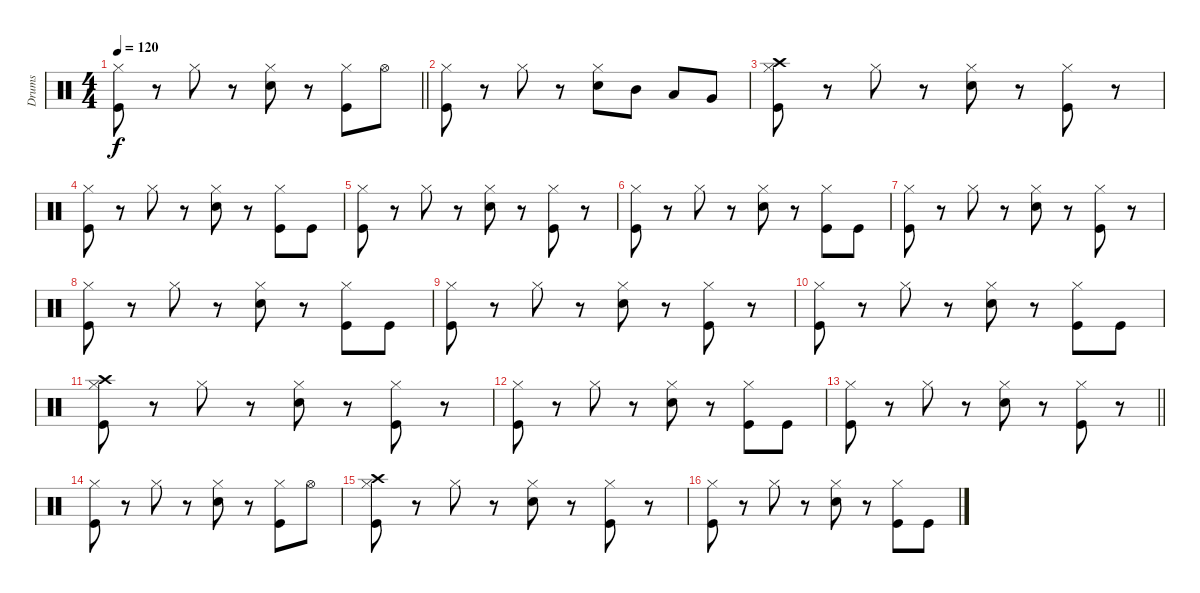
\track ("Drums" "Drums") {instrument percussion}
\staff {score}
\articulation defaults
\ts (4 4)
\tempo 120
\clef neutral
\barLineRight lightlight
\ks c
("Hi-Hat (closed)" "Kick (hit)").8{dy f} r.8 "Hi-Hat (closed)".8 r.8 ("Hi-Hat (closed)" "Snare (hit) 2").8 r.8 ("Hi-Hat (closed)" "Kick (hit)").8 "Hi-Hat (open)".8 |
("Hi-Hat (closed)" "Kick (hit)").8 r.8 "Hi-Hat (closed)".8 r.8 ("Hi-Hat (closed)" "Snare (hit) 2").8 "Mid Tom (hit)".8 "Low Tom (hit)".8 "Very Low Tom (hit)".8 |
("Crash high (hit)" "Hi-Hat (closed)" "Kick (hit)").8 r.8 "Hi-Hat (closed)".8 r.8 ("Hi-Hat (closed)" "Snare (hit) 2").8 r.8 ("Hi-Hat (closed)" "Kick (hit)").8 r.8 |
("Hi-Hat (closed)" "Kick (hit)").8 r.8 "Hi-Hat (closed)".8 r.8 ("Hi-Hat (closed)" "Snare (hit) 2").8 r.8 ("Hi-Hat (closed)" "Kick (hit)").8 "Kick (hit)".8 |
("Hi-Hat (closed)" "Kick (hit)").8 r.8 "Hi-Hat (closed)".8 r.8 ("Hi-Hat (closed)" "Snare (hit) 2").8 r.8 ("Hi-Hat (closed)" "Kick (hit)").8 r.8 |
("Hi-Hat (closed)" "Kick (hit)").8 r.8 "Hi-Hat (closed)".8 r.8 ("Hi-Hat (closed)" "Snare (hit) 2").8 r.8 ("Hi-Hat (closed)" "Kick (hit)").8 "Kick (hit)".8 |
("Hi-Hat (closed)" "Kick (hit)").8 r.8 "Hi-Hat (closed)".8 r.8 ("Hi-Hat (closed)" "Snare (hit) 2").8 r.8 ("Hi-Hat (closed)" "Kick (hit)").8 r.8 |
("Hi-Hat (closed)" "Kick (hit)").8 r.8 "Hi-Hat (closed)".8 r.8 ("Hi-Hat (closed)" "Snare (hit) 2").8 r.8 ("Hi-Hat (closed)" "Kick (hit)").8 "Kick (hit)".8 |
("Hi-Hat (closed)" "Kick (hit)").8 r.8 "Hi-Hat (closed)".8 r.8 ("Hi-Hat (closed)" "Snare (hit) 2").8 r.8 ("Hi-Hat (closed)" "Kick (hit)").8 r.8 |
("Hi-Hat (closed)" "Kick (hit)").8 r.8 "Hi-Hat (closed)".8 r.8 ("Hi-Hat (closed)" "Snare (hit) 2").8 r.8 ("Hi-Hat (closed)" "Kick (hit)").8 "Kick (hit)".8 |
("Crash high (hit)" "Hi-Hat (closed)" "Kick (hit)").8 r.8 "Hi-Hat (closed)".8 r.8 ("Hi-Hat (closed)" "Snare (hit) 2").8 r.8 ("Hi-Hat (closed)" "Kick (hit)").8 r.8 |
("Hi-Hat (closed)" "Kick (hit)").8 r.8 "Hi-Hat (closed)".8 r.8 ("Hi-Hat (closed)" "Snare (hit) 2").8 r.8 ("Hi-Hat (closed)" "Kick (hit)").8 "Kick (hit)".8 |
\barLineRight lightlight
("Hi-Hat (closed)" "Kick (hit)").8 r.8 "Hi-Hat (closed)".8 r.8 ("Hi-Hat (closed)" "Snare (hit) 2").8 r.8 ("Hi-Hat (closed)" "Kick (hit)").8 r.8 |
("Hi-Hat (closed)" "Kick (hit)").8 r.8 "Hi-Hat (closed)".8 r.8 ("Hi-Hat (closed)" "Snare (hit) 2").8 r.8 ("Hi-Hat (closed)" "Kick (hit)").8 "Hi-Hat (open)".8 |
("Crash high (hit)" "Hi-Hat (closed)" "Kick (hit)").8 r.8 "Hi-Hat (closed)".8 r.8 ("Hi-Hat (closed)" "Snare (hit) 2").8 r.8 ("Hi-Hat (closed)" "Kick (hit)").8 r.8 |
("Hi-Hat (closed)" "Kick (hit)").8 r.8 "Hi-Hat (closed)".8 r.8 ("Hi-Hat (closed)" "Snare (hit) 2").8 r.8 ("Hi-Hat (closed)" "Kick (hit)").8 "Kick (hit)".8
